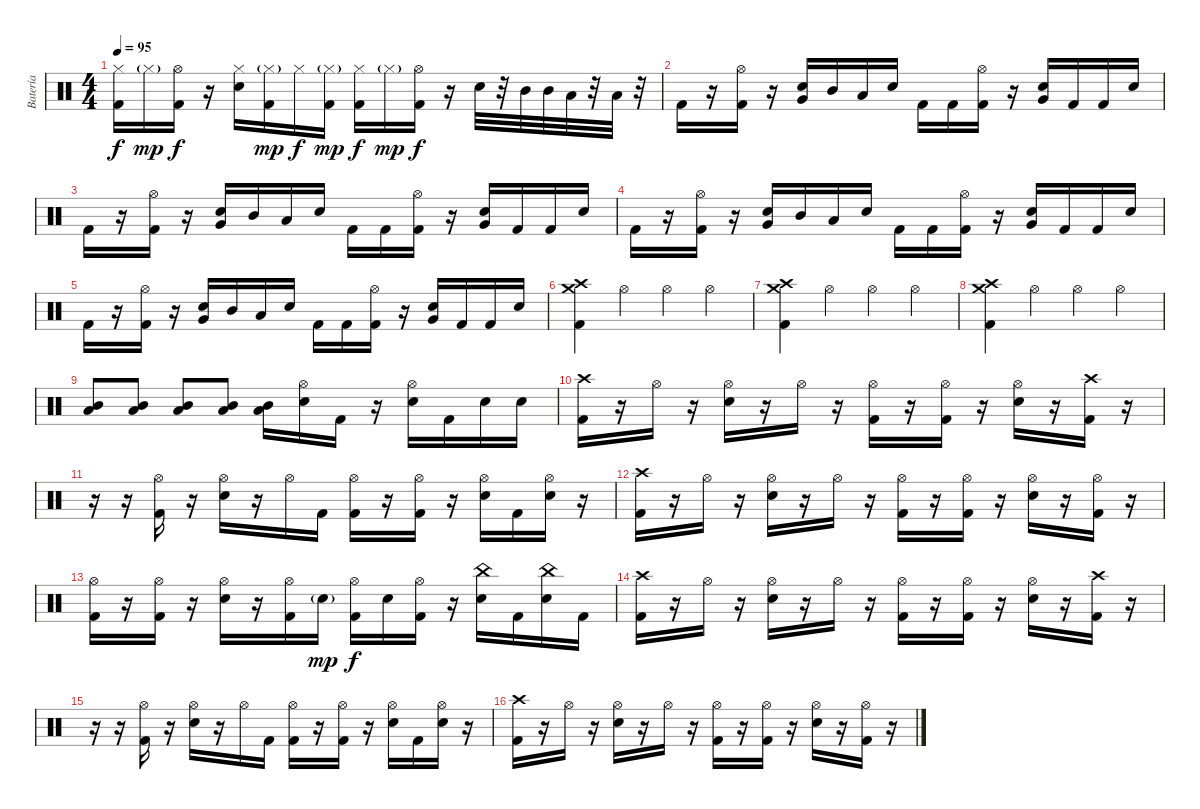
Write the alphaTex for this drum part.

\track ("Batería" "Batería") {instrument percussion}
\staff {score}
\articulation defaults
\ts (4 4)
\tempo 95
\clef neutral
\ks c
("Hi-Hat (closed)" "Kick (hit) 2").16{dy f} "Hi-Hat (closed)"{g}.16{dy mp} ("Hi-Hat (open)" "Kick (hit) 2").16{dy f} r.16 ("Hi-Hat (closed)" "Electric Snare (hit)").16 ("Hi-Hat (closed)"{g} "Kick (hit) 2").16{dy mp} "Hi-Hat (closed)".16{dy f} ("Hi-Hat (closed)"{g} "Kick (hit) 2").16{dy mp} ("Hi-Hat (closed)" "Kick (hit) 2").16{dy f} "Hi-Hat (closed)"{g}.16{dy mp} ("Hi-Hat (open)" "Kick (hit) 2").16{dy f} r.16 "Electric Snare (hit)".32 r.32 "Mid Tom (hit)".32 "Mid Tom (hit)".32 "Low Tom (hit)".32 r.32 "Low Tom (hit)".32 r.32 |
"Kick (hit) 2".16 r.16 ("Hi-Hat (open)" "Kick (hit) 2").16 r.16 ("Electric Snare (hit)" "Very Low Tom (hit)").16 "Mid Tom (hit)".16 "Low Tom (hit)".16 "Electric Snare (hit)".16 "Kick (hit) 2".16 "Kick (hit) 2".16 ("Hi-Hat (open)" "Kick (hit) 2").16 r.16 ("Electric Snare (hit)" "Very Low Tom (hit)").16 "Kick (hit) 2".16 "Kick (hit) 2".16 "Electric Snare (hit)".16 |
"Kick (hit) 2".16 r.16 ("Hi-Hat (open)" "Kick (hit) 2").16 r.16 ("Electric Snare (hit)" "Very Low Tom (hit)").16 "Mid Tom (hit)".16 "Low Tom (hit)".16 "Electric Snare (hit)".16 "Kick (hit) 2".16 "Kick (hit) 2".16 ("Hi-Hat (open)" "Kick (hit) 2").16 r.16 ("Electric Snare (hit)" "Very Low Tom (hit)").16 "Kick (hit) 2".16 "Kick (hit) 2".16 "Electric Snare (hit)".16 |
"Kick (hit) 2".16 r.16 ("Hi-Hat (open)" "Kick (hit) 2").16 r.16 ("Electric Snare (hit)" "Very Low Tom (hit)").16 "Mid Tom (hit)".16 "Low Tom (hit)".16 "Electric Snare (hit)".16 "Kick (hit) 2".16 "Kick (hit) 2".16 ("Hi-Hat (open)" "Kick (hit) 2").16 r.16 ("Electric Snare (hit)" "Very Low Tom (hit)").16 "Kick (hit) 2".16 "Kick (hit) 2".16 "Electric Snare (hit)".16 |
"Kick (hit) 2".16 r.16 ("Hi-Hat (open)" "Kick (hit) 2").16 r.16 ("Electric Snare (hit)" "Very Low Tom (hit)").16 "Mid Tom (hit)".16 "Low Tom (hit)".16 "Electric Snare (hit)".16 "Kick (hit) 2".16 "Kick (hit) 2".16 ("Hi-Hat (open)" "Kick (hit) 2").16 r.16 ("Electric Snare (hit)" "Very Low Tom (hit)").16 "Kick (hit) 2".16 "Kick (hit) 2".16 "Electric Snare (hit)".16 |
("Crash high (hit)" "Crash medium (hit)" "Kick (hit) 2").4 "Hi-Hat (open)".4 "Hi-Hat (open)".4 "Hi-Hat (open)".4 |
("Crash high (hit)" "Crash medium (hit)" "Kick (hit) 2").4 "Hi-Hat (open)".4 "Hi-Hat (open)".4 "Hi-Hat (open)".4 |
("Crash high (hit)" "Crash medium (hit)" "Kick (hit) 2").4 "Hi-Hat (open)".4 "Hi-Hat (open)".4 "Hi-Hat (open)".4 |
("Mid Tom (hit)" "Low Tom (hit)").8 ("Mid Tom (hit)" "Low Tom (hit)").8 ("Mid Tom (hit)" "Low Tom (hit)").8 ("Mid Tom (hit)" "Low Tom (hit)").8 ("Mid Tom (hit)" "Low Tom (hit)").16 ("Hi-Hat (open)" "Electric Snare (hit)").16 "Kick (hit) 2".16 r.16 ("Hi-Hat (open)" "Electric Snare (hit)").16 "Kick (hit) 2".16 "Electric Snare (hit)".16 "Electric Snare (hit)".16 |
("Crash high (hit)" "Kick (hit) 2").16 r.16 "Hi-Hat (open)".16 r.16 ("Hi-Hat (open)" "Electric Snare (hit)").16 r.16 "Hi-Hat (open)".16 r.16 ("Hi-Hat (open)" "Kick (hit) 2").16 r.16 ("Hi-Hat (open)" "Kick (hit) 2").16 r.16 ("Hi-Hat (open)" "Electric Snare (hit)").16 r.16 ("Crash high (hit)" "Kick (hit) 2").16 r.16 |
r.16 r.16 ("Hi-Hat (open)" "Kick (hit) 2").16 r.16 ("Hi-Hat (open)" "Electric Snare (hit)").16 r.16 "Hi-Hat (open)".16 "Kick (hit) 2".16 ("Hi-Hat (open)" "Kick (hit) 2").16 r.16 ("Hi-Hat (open)" "Kick (hit) 2").16 r.16 ("Hi-Hat (open)" "Electric Snare (hit)").16 "Kick (hit) 2".16 ("Hi-Hat (open)" "Electric Snare (hit)").16 r.16 |
("Crash high (hit)" "Kick (hit) 2").16 r.16 "Hi-Hat (open)".16 r.16 ("Hi-Hat (open)" "Electric Snare (hit)").16 r.16 "Hi-Hat (open)".16 r.16 ("Hi-Hat (open)" "Kick (hit) 2").16 r.16 ("Hi-Hat (open)" "Kick (hit) 2").16 r.16 ("Hi-Hat (open)" "Electric Snare (hit)").16 r.16 ("Hi-Hat (open)" "Kick (hit) 2").16 r.16 |
("Hi-Hat (open)" "Kick (hit) 2").16 r.16 ("Hi-Hat (open)" "Kick (hit) 2").16 r.16 ("Hi-Hat (open)" "Electric Snare (hit)").16 r.16 ("Hi-Hat (open)" "Kick (hit) 2").16 "Electric Snare (hit)"{g}.16{dy mp} ("Hi-Hat (open)" "Kick (hit) 2").16{dy f} "Electric Snare (hit)".16 ("Hi-Hat (open)" "Kick (hit) 2").16 r.16 ("China (hit)" "Electric Snare (hit)").16 "Kick (hit) 2".16 ("China (hit)" "Electric Snare (hit)").16 "Kick (hit) 2".16 |
("Crash high (hit)" "Kick (hit) 2").16 r.16 "Hi-Hat (open)".16 r.16 ("Hi-Hat (open)" "Electric Snare (hit)").16 r.16 "Hi-Hat (open)".16 r.16 ("Hi-Hat (open)" "Kick (hit) 2").16 r.16 ("Hi-Hat (open)" "Kick (hit) 2").16 r.16 ("Hi-Hat (open)" "Electric Snare (hit)").16 r.16 ("Crash high (hit)" "Kick (hit) 2").16 r.16 |
r.16 r.16 ("Hi-Hat (open)" "Kick (hit) 2").16 r.16 ("Hi-Hat (open)" "Electric Snare (hit)").16 r.16 "Hi-Hat (open)".16 "Kick (hit) 2".16 ("Hi-Hat (open)" "Kick (hit) 2").16 r.16 ("Hi-Hat (open)" "Kick (hit) 2").16 r.16 ("Hi-Hat (open)" "Electric Snare (hit)").16 "Kick (hit) 2".16 ("Hi-Hat (open)" "Electric Snare (hit)").16 r.16 |
("Crash high (hit)" "Kick (hit) 2").16 r.16 "Hi-Hat (open)".16 r.16 ("Hi-Hat (open)" "Electric Snare (hit)").16 r.16 "Hi-Hat (open)".16 r.16 ("Hi-Hat (open)" "Kick (hit) 2").16 r.16 ("Hi-Hat (open)" "Kick (hit) 2").16 r.16 ("Hi-Hat (open)" "Electric Snare (hit)").16 r.16 ("Hi-Hat (open)" "Kick (hit) 2").16 r.16
